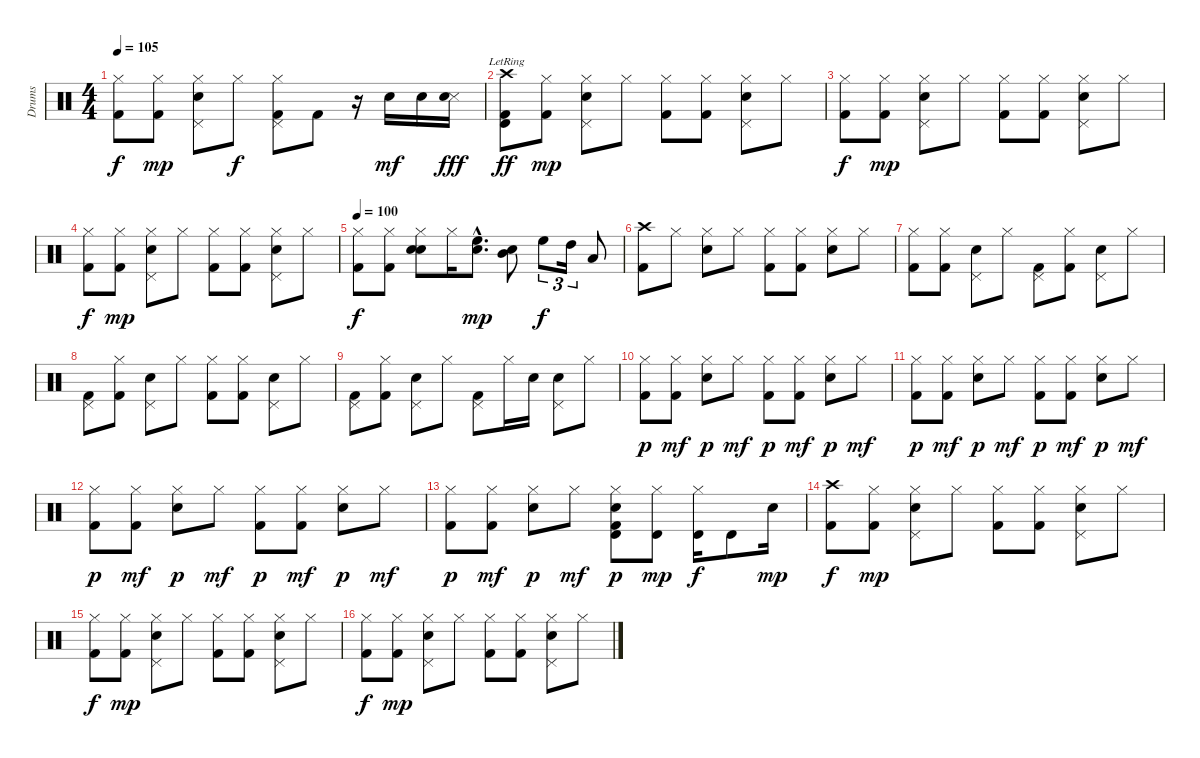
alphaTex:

\track ("Drums" "Drums") {instrument percussion}
\staff {score}
\articulation defaults
\ts (4 4)
\tempo 105
\clef neutral
\ks c
("Hi-Hat (closed)" "Kick (hit) 2").8{dy f} ("Hi-Hat (closed)" "Kick (hit) 2").8{dy mp} ("Hi-Hat (closed)" "Pedal Hi-Hat (hit)" "Electric Snare (hit)").8 "Hi-Hat (closed)".8{dy f} ("Hi-Hat (closed)" "Pedal Hi-Hat (hit)" "Kick (hit) 2").8 "Kick (hit) 2".8 r.16 "Electric Snare (hit)".16{dy mf} "Electric Snare (hit)".16 ("Snare (side stick) 3" "Electric Snare (hit)").16{dy fff} |
("Crash high (hit)" "Timbale high (hit)"{lr} "Kick (hit) 2").8{dy ff} ("Hi-Hat (closed)" "Kick (hit) 2").8{dy mp} ("Hi-Hat (closed)" "Pedal Hi-Hat (hit)" "Electric Snare (hit)").8 "Hi-Hat (closed)".8 ("Hi-Hat (closed)" "Kick (hit) 2").8 ("Hi-Hat (closed)" "Kick (hit) 2").8 ("Hi-Hat (closed)" "Pedal Hi-Hat (hit)" "Electric Snare (hit)").8 "Hi-Hat (closed)".8 |
("Hi-Hat (closed)" "Kick (hit) 2").8{dy f} ("Hi-Hat (closed)" "Kick (hit) 2").8{dy mp} ("Hi-Hat (closed)" "Pedal Hi-Hat (hit)" "Electric Snare (hit)").8 "Hi-Hat (closed)".8 ("Hi-Hat (closed)" "Kick (hit) 2").8 ("Hi-Hat (closed)" "Kick (hit) 2").8 ("Hi-Hat (closed)" "Pedal Hi-Hat (hit)" "Electric Snare (hit)").8 "Hi-Hat (closed)".8 |
("Hi-Hat (closed)" "Kick (hit) 2").8{dy f} ("Hi-Hat (closed)" "Kick (hit) 2").8{dy mp} ("Hi-Hat (closed)" "Pedal Hi-Hat (hit)" "Electric Snare (hit)").8 "Hi-Hat (closed)".8 ("Hi-Hat (closed)" "Kick (hit) 2").8 ("Hi-Hat (closed)" "Kick (hit) 2").8 ("Hi-Hat (closed)" "Pedal Hi-Hat (hit)" "Electric Snare (hit)").8 "Hi-Hat (closed)".8 |
\tempo 100
("Hi-Hat (closed)" "Kick (hit) 2").8{dy f} ("Hi-Hat (closed)" "Kick (hit) 2").8 ("Hi-Hat (closed)" "Snare (hit) 2" "Snare (hit) 2").8{bd 60} "Hi-Hat (closed)".16 ("High Floor Tom (hit)"{hac} "Snare (hit) 2"{hac}).8{d bu 120 dy mp} ("Mid Tom (hit)" "Snare (hit) 2").8 "High Floor Tom (hit)".8{tu (3 2) dy f} "High Tom (hit)".16{tu (3 2)} "Low Tom (hit)".8 |
("Crash high (hit)" "Kick (hit) 2").8 "Hi-Hat (closed)".8 ("Hi-Hat (closed)" "Snare (hit) 2").8 "Hi-Hat (closed)".8 ("Hi-Hat (closed)" "Kick (hit) 2").8 ("Hi-Hat (closed)" "Kick (hit) 2").8 ("Hi-Hat (closed)" "Snare (hit) 2").8 "Hi-Hat (closed)".8 |
("Hi-Hat (closed)" "Kick (hit) 2").8 ("Hi-Hat (closed)" "Kick (hit) 2").8 ("Pedal Hi-Hat (hit)" "Snare (hit) 2").8 "Hi-Hat (closed)".8 ("Pedal Hi-Hat (hit)" "Kick (hit) 2").8 ("Hi-Hat (closed)" "Kick (hit) 2").8 ("Pedal Hi-Hat (hit)" "Snare (hit) 2").8 "Hi-Hat (closed)".8 |
("Pedal Hi-Hat (hit)" "Kick (hit) 2").8 ("Hi-Hat (closed)" "Kick (hit) 2").8 ("Pedal Hi-Hat (hit)" "Snare (hit) 2").8 "Hi-Hat (closed)".8 ("Hi-Hat (closed)" "Kick (hit) 2").8 ("Hi-Hat (closed)" "Kick (hit) 2").8 ("Pedal Hi-Hat (hit)" "Snare (hit) 2").8 "Hi-Hat (closed)".8 |
("Pedal Hi-Hat (hit)" "Kick (hit) 2").8 ("Hi-Hat (closed)" "Kick (hit) 2").8 ("Pedal Hi-Hat (hit)" "Snare (hit) 2").8 "Hi-Hat (closed)".8 ("Pedal Hi-Hat (hit)" "Kick (hit) 2").8 "Hi-Hat (closed)".16 "Snare (hit) 2".16 ("Pedal Hi-Hat (hit)" "Snare (hit) 2").8 "Hi-Hat (closed)".8 |
("Hi-Hat (closed)" "Kick (hit) 2").8{dy p} ("Hi-Hat (closed)" "Kick (hit) 2").8{dy mf} ("Hi-Hat (closed)" "Snare (hit) 2").8{dy p} "Hi-Hat (closed)".8{dy mf} ("Hi-Hat (closed)" "Kick (hit) 2").8{dy p} ("Hi-Hat (closed)" "Kick (hit) 2").8{dy mf} ("Hi-Hat (closed)" "Snare (hit) 2").8{dy p} "Hi-Hat (closed)".8{dy mf} |
("Hi-Hat (closed)" "Kick (hit) 2").8{dy p} ("Hi-Hat (closed)" "Kick (hit) 2").8{dy mf} ("Hi-Hat (closed)" "Snare (hit) 2").8{dy p} "Hi-Hat (closed)".8{dy mf} ("Hi-Hat (closed)" "Kick (hit) 2").8{dy p} ("Hi-Hat (closed)" "Kick (hit) 2").8{dy mf} ("Hi-Hat (closed)" "Snare (hit) 2").8{dy p} "Hi-Hat (closed)".8{dy mf} |
("Hi-Hat (closed)" "Kick (hit) 2").8{dy p} ("Hi-Hat (closed)" "Kick (hit) 2").8{dy mf} ("Hi-Hat (closed)" "Snare (hit) 2").8{dy p} "Hi-Hat (closed)".8{dy mf} ("Hi-Hat (closed)" "Kick (hit) 2").8{dy p} ("Hi-Hat (closed)" "Kick (hit) 2").8{dy mf} ("Hi-Hat (closed)" "Snare (hit) 2").8{dy p} "Hi-Hat (closed)".8{dy mf} |
("Hi-Hat (closed)" "Kick (hit) 2").8{dy p} ("Hi-Hat (closed)" "Kick (hit) 2").8{dy mf} ("Hi-Hat (closed)" "Snare (hit) 2").8{dy p} "Hi-Hat (closed)".8{dy mf} ("Hi-Hat (closed)" "Timbale high (hit)" "Snare (hit) 2" "Kick (hit) 2").8{dy p} ("Hi-Hat (closed)" "Timbale high (hit)").8{dy mp} ("Hi-Hat (closed)" "Timbale high (hit)").16{dy f} "Timbale high (hit)".8 "Snare (hit) 2".16{dy mp} |
("Crash high (hit)" "Kick (hit) 2").8{dy f} ("Hi-Hat (closed)" "Kick (hit) 2").8{dy mp} ("Hi-Hat (closed)" "Pedal Hi-Hat (hit)" "Electric Snare (hit)").8 "Hi-Hat (closed)".8 ("Hi-Hat (closed)" "Kick (hit) 2").8 ("Hi-Hat (closed)" "Kick (hit) 2").8 ("Hi-Hat (closed)" "Pedal Hi-Hat (hit)" "Electric Snare (hit)").8 "Hi-Hat (closed)".8 |
("Hi-Hat (closed)" "Kick (hit) 2").8{dy f} ("Hi-Hat (closed)" "Kick (hit) 2").8{dy mp} ("Hi-Hat (closed)" "Pedal Hi-Hat (hit)" "Electric Snare (hit)").8 "Hi-Hat (closed)".8 ("Hi-Hat (closed)" "Kick (hit) 2").8 ("Hi-Hat (closed)" "Kick (hit) 2").8 ("Hi-Hat (closed)" "Pedal Hi-Hat (hit)" "Electric Snare (hit)").8 "Hi-Hat (closed)".8 |
("Hi-Hat (closed)" "Kick (hit) 2").8{dy f} ("Hi-Hat (closed)" "Kick (hit) 2").8{dy mp} ("Hi-Hat (closed)" "Pedal Hi-Hat (hit)" "Electric Snare (hit)").8 "Hi-Hat (closed)".8 ("Hi-Hat (closed)" "Kick (hit) 2").8 ("Hi-Hat (closed)" "Kick (hit) 2").8 ("Hi-Hat (closed)" "Pedal Hi-Hat (hit)" "Electric Snare (hit)").8 "Hi-Hat (closed)".8
